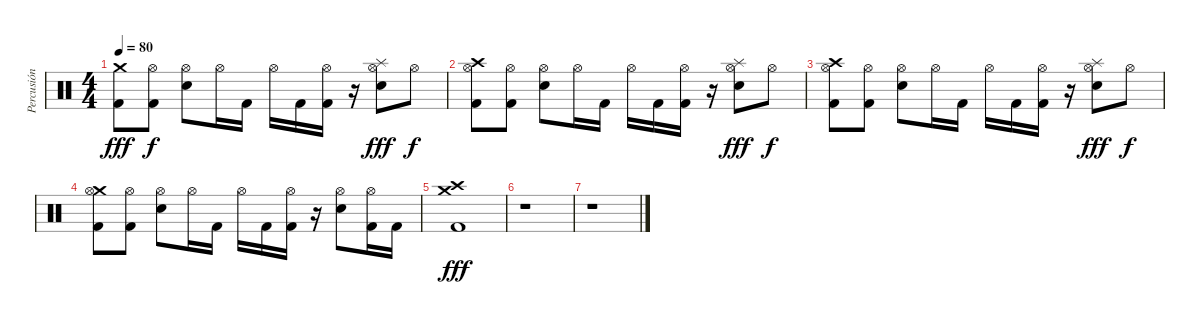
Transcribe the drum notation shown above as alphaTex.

\track ("Percusión" "Percusión") {instrument percussion}
\staff {score}
\articulation defaults
\ts (4 4)
\tempo 80
\clef neutral
\ks c
("Crash medium (hit)" "Kick (hit) 2").8{dy fff} ("Hi-Hat (open)" "Kick (hit) 2").8{dy f} ("Hi-Hat (open)" "Electric Snare (hit)").8 "Hi-Hat (open)".16 "Kick (hit) 2".16 "Hi-Hat (open)".16 "Kick (hit) 2".16 ("Hi-Hat (open)" "Kick (hit) 2").16 r.16 ("Splash (hit)" "Hi-Hat (open)" "Electric Snare (hit)").8{dy fff} "Hi-Hat (open)".8{dy f} |
("Crash high (hit)" "Hi-Hat (open)" "Kick (hit) 2").8 ("Hi-Hat (open)" "Kick (hit) 2").8 ("Hi-Hat (open)" "Electric Snare (hit)").8 "Hi-Hat (open)".16 "Kick (hit) 2".16 "Hi-Hat (open)".16 "Kick (hit) 2".16 ("Hi-Hat (open)" "Kick (hit) 2").16 r.16 ("Splash (hit)" "Hi-Hat (open)" "Electric Snare (hit)").8{dy fff} "Hi-Hat (open)".8{dy f} |
("Crash high (hit)" "Hi-Hat (open)" "Kick (hit) 2").8 ("Hi-Hat (open)" "Kick (hit) 2").8 ("Hi-Hat (open)" "Electric Snare (hit)").8 "Hi-Hat (open)".16 "Kick (hit) 2".16 "Hi-Hat (open)".16 "Kick (hit) 2".16 ("Hi-Hat (open)" "Kick (hit) 2").16 r.16 ("Splash (hit)" "Hi-Hat (open)" "Electric Snare (hit)").8{dy fff} "Hi-Hat (open)".8{dy f} |
("Crash medium (hit)" "Hi-Hat (open)" "Kick (hit) 2").8 ("Hi-Hat (open)" "Kick (hit) 2").8 ("Hi-Hat (open)" "Electric Snare (hit)").8 "Hi-Hat (open)".16 "Kick (hit) 2".16 "Hi-Hat (open)".16 "Kick (hit) 2".16 ("Hi-Hat (open)" "Kick (hit) 2").16 r.16 ("Hi-Hat (open)" "Electric Snare (hit)").8 ("Hi-Hat (open)" "Kick (hit) 2").16 "Kick (hit) 2".16 |
("Crash high (hit)" "Crash medium (hit)" "Kick (hit) 2").1{dy fff} |
r.1 |
r.1
